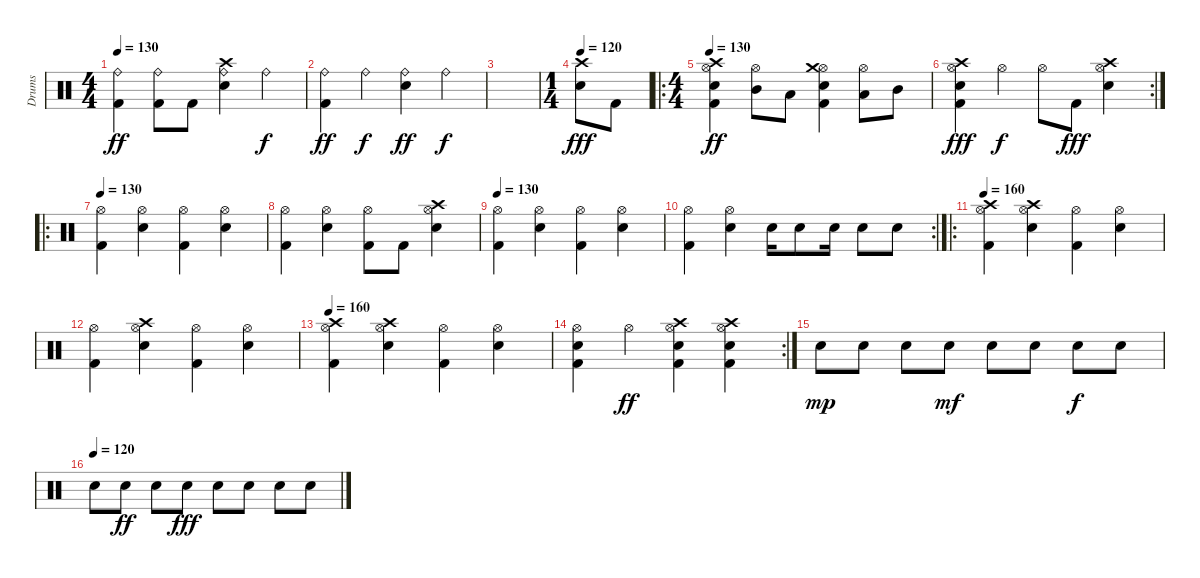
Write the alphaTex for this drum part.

\track ("Drums" "Drums") {instrument percussion}
\staff {score}
\articulation defaults
\ts (4 4)
\tempo 130
\clef neutral
\ks c
("Ride (bell)" "Kick (hit) 2").4{dy ff} ("Ride (bell)" "Kick (hit) 2").8 "Kick (hit) 2".8 ("Ride (bell)" "Crash high (hit)" "Snare (hit) 2").4 "Ride (bell)".4{dy f} |
("Ride (bell)" "Kick (hit) 2").4{dy ff} "Ride (bell)".4{dy f} ("Ride (bell)" "Snare (hit) 2").4{dy ff} "Ride (bell)".4{dy f} |
|
\ts (1 4)
\tempo 120
("Crash high (hit)" "Snare (hit) 2").8{dy fff volume 16} "Kick (hit) 2".8 |
\ro
\ts (4 4)
\tempo 130
("Hi-Hat (open)" "Crash high (hit)" "Snare (hit) 2" "Kick (hit) 2").4{dy ff volume 15} ("Hi-Hat (open)" "Mid Tom (hit)").8 "Low Tom (hit)".8 ("Hi-Hat (open)" "Crash medium (hit)" "Snare (hit) 2" "Kick (hit) 2").4 ("Hi-Hat (open)" "Low Tom (hit)").8 "Mid Tom (hit)".8 |
\rc 2
("Hi-Hat (open)" "Crash high (hit)" "Snare (hit) 2" "Kick (hit) 2").4{dy fff} "Hi-Hat (open)".4{dy f} "Hi-Hat (open)".8 "Kick (hit) 2".8{dy fff} ("Hi-Hat (open)" "Crash high (hit)" "Snare (hit) 2").4 |
\ro
\tempo 130
("Hi-Hat (open)" "Kick (hit) 2").4 ("Hi-Hat (open)" "Snare (hit) 2").4 ("Hi-Hat (open)" "Kick (hit) 2").4 ("Hi-Hat (open)" "Snare (hit) 2").4 |
("Hi-Hat (open)" "Kick (hit) 2").4 ("Hi-Hat (open)" "Snare (hit) 2").4 ("Hi-Hat (open)" "Kick (hit) 2").8 "Kick (hit) 2".8 ("Hi-Hat (open)" "Crash high (hit)" "Snare (hit) 2").4 |
\tempo 130
("Hi-Hat (open)" "Kick (hit) 2").4 ("Hi-Hat (open)" "Snare (hit) 2").4 ("Hi-Hat (open)" "Kick (hit) 2").4 ("Hi-Hat (open)" "Snare (hit) 2").4 |
\rc 2
("Hi-Hat (open)" "Kick (hit) 2").4 ("Hi-Hat (open)" "Snare (hit) 2").4 "Snare (hit) 2".16 "Snare (hit) 2".8 "Snare (hit) 2".16 "Snare (hit) 2".8 "Snare (hit) 2".8 |
\ro
\tempo 160
("Hi-Hat (open)" "Crash high (hit)" "Kick (hit) 2").4 ("Hi-Hat (open)" "Crash high (hit)" "Snare (hit) 2").4 ("Hi-Hat (open)" "Kick (hit) 2").4 ("Hi-Hat (open)" "Snare (hit) 2").4 |
("Hi-Hat (open)" "Kick (hit) 2").4 ("Hi-Hat (open)" "Crash high (hit)" "Snare (hit) 2").4 ("Hi-Hat (open)" "Kick (hit) 2").4 ("Hi-Hat (open)" "Snare (hit) 2").4 |
\tempo 160
("Hi-Hat (open)" "Crash high (hit)" "Kick (hit) 2").4 ("Hi-Hat (open)" "Crash high (hit)" "Snare (hit) 2").4 ("Hi-Hat (open)" "Kick (hit) 2").4 ("Hi-Hat (open)" "Snare (hit) 2").4 |
\rc 2
("Hi-Hat (open)" "Snare (hit) 2" "Kick (hit) 2").4 "Hi-Hat (open)".4{dy ff} ("Hi-Hat (open)" "Crash high (hit)" "Snare (hit) 2" "Kick (hit) 2").4 ("Hi-Hat (open)" "Crash high (hit)" "Snare (hit) 2" "Kick (hit) 2").4 |
"Snare (hit) 2".8{dy mp} "Snare (hit) 2".8 "Snare (hit) 2".8 "Snare (hit) 2".8{dy mf} "Snare (hit) 2".8 "Snare (hit) 2".8 "Snare (hit) 2".8{dy f} "Snare (hit) 2".8 |
\tempo (120)
"Snare (hit) 2".8 "Snare (hit) 2".8{dy ff} "Snare (hit) 2".8 "Snare (hit) 2".8{dy fff} "Snare (hit) 2".8 "Snare (hit) 2".8 "Snare (hit) 2".8 "Snare (hit) 2".8
